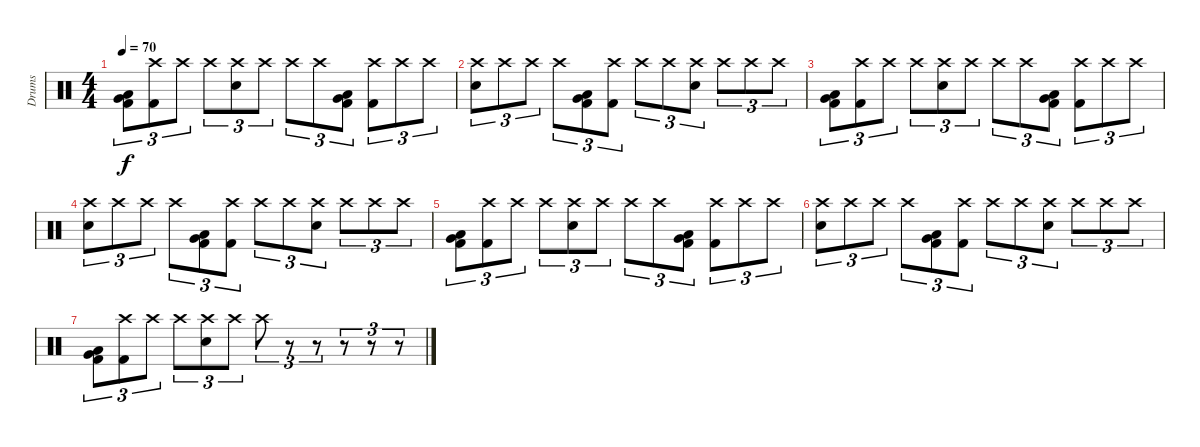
\track ("Drums" "Drums") {instrument percussion}
\staff {score}
\articulation defaults
\ts (4 4)
\tempo 70
\clef neutral
\ks c
("Kick (hit) 2" "Very Low Tom (hit)" "Low Tom (hit)").8{tu (3 2) dy f} ("Crash high (hit)" "Kick (hit) 2").8{tu (3 2)} "Crash high (hit)".8{tu (3 2)} "Crash high (hit)".8{tu (3 2)} ("Crash high (hit)" "Electric Snare (hit)").8{tu (3 2)} "Crash high (hit)".8{tu (3 2)} "Crash high (hit)".8{tu (3 2)} "Crash high (hit)".8{tu (3 2)} ("Low Tom (hit)" "Kick (hit) 2" "Very Low Tom (hit)").8{tu (3 2)} ("Crash high (hit)" "Kick (hit) 2").8{tu (3 2)} "Crash high (hit)".8{tu (3 2)} "Crash high (hit)".8{tu (3 2)} |
("Crash high (hit)" "Electric Snare (hit)").8{tu (3 2)} "Crash high (hit)".8{tu (3 2)} "Crash high (hit)".8{tu (3 2)} "Crash high (hit)".8{tu (3 2)} ("Low Tom (hit)" "Very Low Tom (hit)" "Kick (hit) 2").8{tu (3 2)} ("Crash high (hit)" "Kick (hit) 2").8{tu (3 2)} "Crash high (hit)".8{tu (3 2)} "Crash high (hit)".8{tu (3 2)} ("Crash high (hit)" "Electric Snare (hit)").8{tu (3 2)} "Crash high (hit)".8{tu (3 2)} "Crash high (hit)".8{tu (3 2)} "Crash high (hit)".8{tu (3 2)} |
("Kick (hit) 2" "Very Low Tom (hit)" "Low Tom (hit)").8{tu (3 2)} ("Crash high (hit)" "Kick (hit) 2").8{tu (3 2)} "Crash high (hit)".8{tu (3 2)} "Crash high (hit)".8{tu (3 2)} ("Crash high (hit)" "Electric Snare (hit)").8{tu (3 2)} "Crash high (hit)".8{tu (3 2)} "Crash high (hit)".8{tu (3 2)} "Crash high (hit)".8{tu (3 2)} ("Low Tom (hit)" "Kick (hit) 2" "Very Low Tom (hit)").8{tu (3 2)} ("Crash high (hit)" "Kick (hit) 2").8{tu (3 2)} "Crash high (hit)".8{tu (3 2)} "Crash high (hit)".8{tu (3 2)} |
("Crash high (hit)" "Electric Snare (hit)").8{tu (3 2)} "Crash high (hit)".8{tu (3 2)} "Crash high (hit)".8{tu (3 2)} "Crash high (hit)".8{tu (3 2)} ("Low Tom (hit)" "Very Low Tom (hit)" "Kick (hit) 2").8{tu (3 2)} ("Crash high (hit)" "Kick (hit) 2").8{tu (3 2)} "Crash high (hit)".8{tu (3 2)} "Crash high (hit)".8{tu (3 2)} ("Crash high (hit)" "Electric Snare (hit)").8{tu (3 2)} "Crash high (hit)".8{tu (3 2)} "Crash high (hit)".8{tu (3 2)} "Crash high (hit)".8{tu (3 2)} |
("Kick (hit) 2" "Very Low Tom (hit)" "Low Tom (hit)").8{tu (3 2)} ("Crash high (hit)" "Kick (hit) 2").8{tu (3 2)} "Crash high (hit)".8{tu (3 2)} "Crash high (hit)".8{tu (3 2)} ("Crash high (hit)" "Electric Snare (hit)").8{tu (3 2)} "Crash high (hit)".8{tu (3 2)} "Crash high (hit)".8{tu (3 2)} "Crash high (hit)".8{tu (3 2)} ("Low Tom (hit)" "Kick (hit) 2" "Very Low Tom (hit)").8{tu (3 2)} ("Crash high (hit)" "Kick (hit) 2").8{tu (3 2)} "Crash high (hit)".8{tu (3 2)} "Crash high (hit)".8{tu (3 2)} |
("Crash high (hit)" "Electric Snare (hit)").8{tu (3 2)} "Crash high (hit)".8{tu (3 2)} "Crash high (hit)".8{tu (3 2)} "Crash high (hit)".8{tu (3 2)} ("Low Tom (hit)" "Very Low Tom (hit)" "Kick (hit) 2").8{tu (3 2)} ("Crash high (hit)" "Kick (hit) 2").8{tu (3 2)} "Crash high (hit)".8{tu (3 2)} "Crash high (hit)".8{tu (3 2)} ("Crash high (hit)" "Electric Snare (hit)").8{tu (3 2)} "Crash high (hit)".8{tu (3 2)} "Crash high (hit)".8{tu (3 2)} "Crash high (hit)".8{tu (3 2)} |
("Kick (hit) 2" "Very Low Tom (hit)" "Low Tom (hit)").8{tu (3 2)} ("Crash high (hit)" "Kick (hit) 2").8{tu (3 2)} "Crash high (hit)".8{tu (3 2)} "Crash high (hit)".8{tu (3 2)} ("Crash high (hit)" "Electric Snare (hit)").8{tu (3 2)} "Crash high (hit)".8{tu (3 2)} "Crash high (hit)".8{tu (3 2)} r.8{tu (3 2)} r.8{tu (3 2)} r.8{tu (3 2)} r.8{tu (3 2)} r.8{tu (3 2)}
